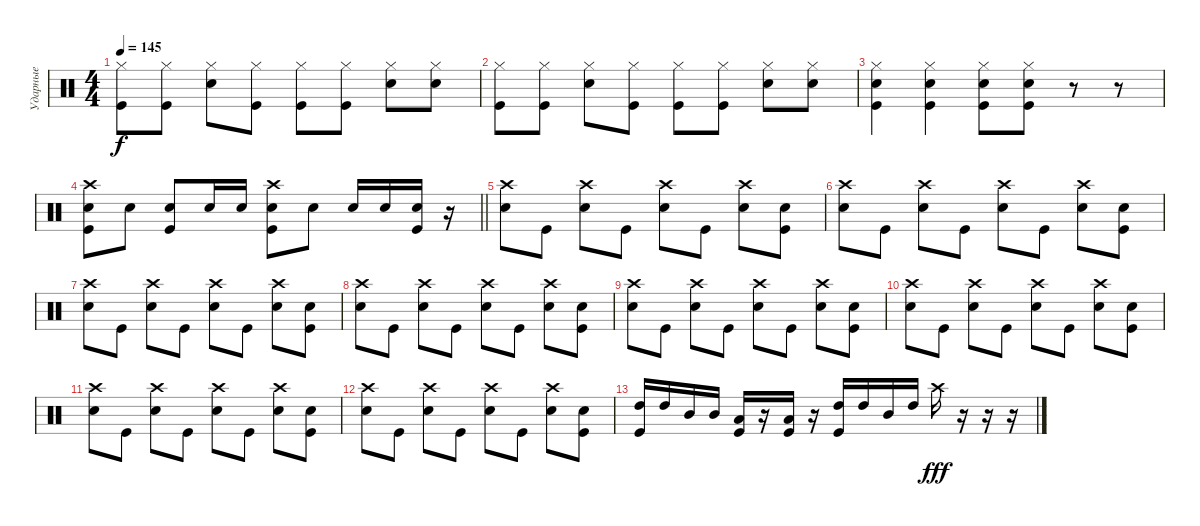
\track ("Ударные" "Ударные") {instrument percussion bank 125}
\staff {score}
\articulation defaults
\ts (4 4)
\tempo 145
\clef neutral
\ks c
("Hi-Hat (closed)" "Kick (hit)").8{dy f} ("Hi-Hat (closed)" "Kick (hit)").8 ("Hi-Hat (closed)" "Snare (hit) 2").8 ("Hi-Hat (closed)" "Kick (hit)").8 ("Hi-Hat (closed)" "Kick (hit)").8 ("Hi-Hat (closed)" "Kick (hit)").8 ("Hi-Hat (closed)" "Snare (hit) 2").8 ("Hi-Hat (closed)" "Snare (hit) 2").8 |
("Hi-Hat (closed)" "Kick (hit)").8 ("Hi-Hat (closed)" "Kick (hit)").8 ("Hi-Hat (closed)" "Snare (hit) 2").8 ("Hi-Hat (closed)" "Kick (hit)").8 ("Hi-Hat (closed)" "Kick (hit)").8 ("Hi-Hat (closed)" "Kick (hit)").8 ("Hi-Hat (closed)" "Snare (hit) 2").8 ("Hi-Hat (closed)" "Snare (hit) 2").8 |
("Hi-Hat (closed)" "Snare (hit) 2" "Kick (hit)").4 ("Hi-Hat (closed)" "Snare (hit) 2" "Kick (hit)").4 ("Hi-Hat (closed)" "Snare (hit) 2" "Kick (hit)").8 ("Hi-Hat (closed)" "Snare (hit) 2" "Kick (hit)").8 r.8 r.8 |
\barLineRight lightlight
("Crash high (hit)" "Snare (hit) 2" "Kick (hit)").8 "Snare (hit) 2".8 ("Snare (hit) 2" "Kick (hit)").8 "Snare (hit) 2".16 "Snare (hit) 2".16 ("Crash high (hit)" "Snare (hit) 2" "Kick (hit)").8 "Snare (hit) 2".8 "Snare (hit) 2".16 "Snare (hit) 2".16 ("Snare (hit) 2" "Kick (hit)").16 r.16 |
("Crash high (hit)" "Snare (hit) 2").8 "Kick (hit)".8 ("Crash high (hit)" "Snare (hit) 2").8 "Kick (hit)".8 ("Crash high (hit)" "Snare (hit) 2").8 "Kick (hit)".8 ("Crash high (hit)" "Snare (hit) 2").8 ("Snare (hit) 2" "Kick (hit)").8 |
("Crash high (hit)" "Snare (hit) 2").8 "Kick (hit)".8 ("Crash high (hit)" "Snare (hit) 2").8 "Kick (hit)".8 ("Crash high (hit)" "Snare (hit) 2").8 "Kick (hit)".8 ("Crash high (hit)" "Snare (hit) 2").8 ("Snare (hit) 2" "Kick (hit)").8 |
("Crash high (hit)" "Snare (hit) 2").8 "Kick (hit)".8 ("Crash high (hit)" "Snare (hit) 2").8 "Kick (hit)".8 ("Crash high (hit)" "Snare (hit) 2").8 "Kick (hit)".8 ("Crash high (hit)" "Snare (hit) 2").8 ("Snare (hit) 2" "Kick (hit)").8 |
("Crash high (hit)" "Snare (hit) 2").8 "Kick (hit)".8 ("Crash high (hit)" "Snare (hit) 2").8 "Kick (hit)".8 ("Crash high (hit)" "Snare (hit) 2").8 "Kick (hit)".8 ("Crash high (hit)" "Snare (hit) 2").8 ("Snare (hit) 2" "Kick (hit)").8 |
("Crash high (hit)" "Snare (hit) 2").8 "Kick (hit)".8 ("Crash high (hit)" "Snare (hit) 2").8 "Kick (hit)".8 ("Crash high (hit)" "Snare (hit) 2").8 "Kick (hit)".8 ("Crash high (hit)" "Snare (hit) 2").8 ("Snare (hit) 2" "Kick (hit)").8 |
("Crash high (hit)" "Snare (hit) 2").8 "Kick (hit)".8 ("Crash high (hit)" "Snare (hit) 2").8 "Kick (hit)".8 ("Crash high (hit)" "Snare (hit) 2").8 "Kick (hit)".8 ("Crash high (hit)" "Snare (hit) 2").8 ("Snare (hit) 2" "Kick (hit)").8 |
("Crash high (hit)" "Snare (hit) 2").8 "Kick (hit)".8 ("Crash high (hit)" "Snare (hit) 2").8 "Kick (hit)".8 ("Crash high (hit)" "Snare (hit) 2").8 "Kick (hit)".8 ("Crash high (hit)" "Snare (hit) 2").8 ("Snare (hit) 2" "Kick (hit)").8 |
("Crash high (hit)" "Snare (hit) 2").8 "Kick (hit)".8 ("Crash high (hit)" "Snare (hit) 2").8 "Kick (hit)".8 ("Crash high (hit)" "Snare (hit) 2").8 "Kick (hit)".8 ("Crash high (hit)" "Snare (hit) 2").8 ("Snare (hit) 2" "Kick (hit)").8 |
("High Tom (hit)" "Kick (hit)").16 "High Tom (hit)".16 "Mid Tom (hit)".16 "Mid Tom (hit)".16 ("Low Tom (hit)" "Kick (hit)").16 r.16 ("Low Tom (hit)" "Kick (hit)").16 r.16 ("High Tom (hit)" "Kick (hit)").16 "High Tom (hit)".16 "Mid Tom (hit)".16 "High Tom (hit)".16 "Crash high (hit)".16{dy fff} r.16 r.16 r.16
